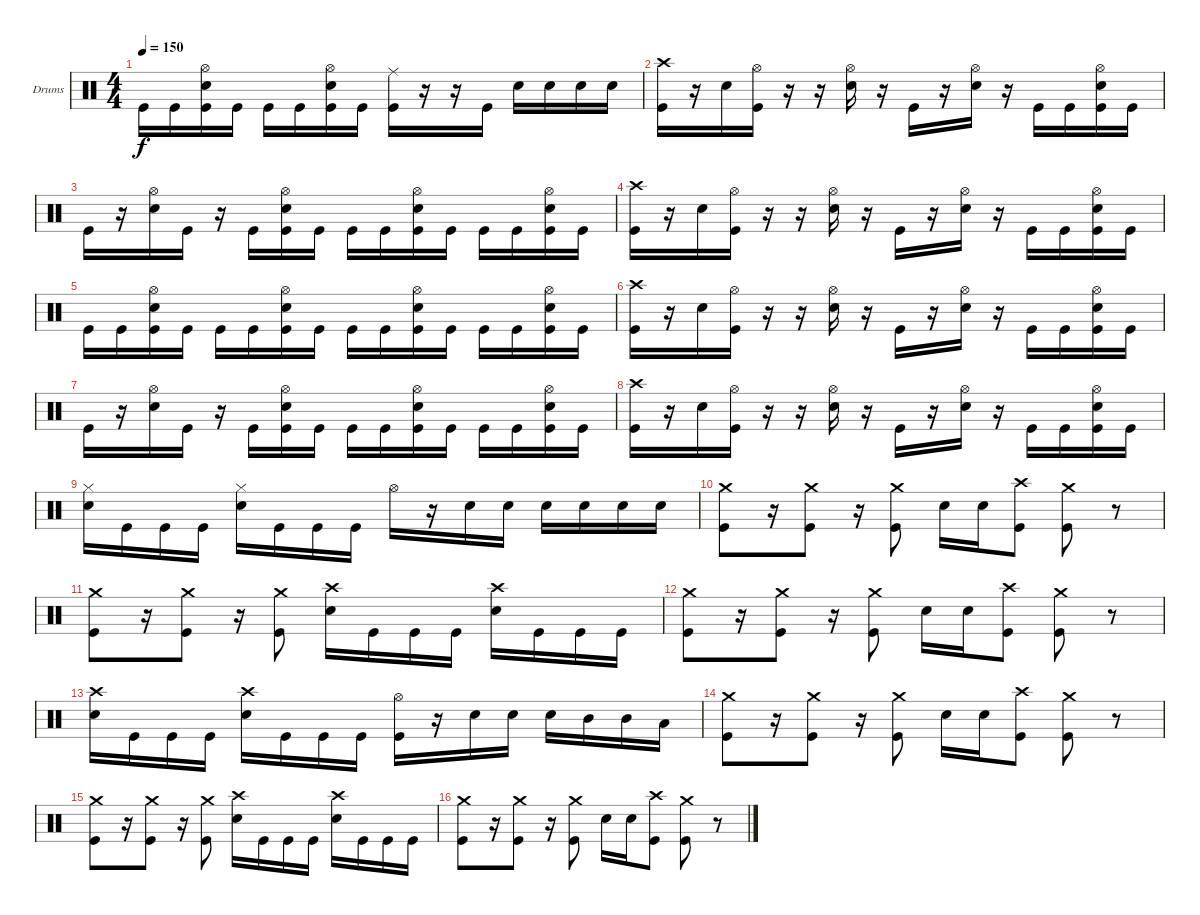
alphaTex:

\defaultSystemsLayout 4
\bracketExtendMode groupsimilarinstruments
\firstSystemTrackNameOrientation horizontal
\otherSystemsTrackNameOrientation horizontal
\track ("Moe Carlson" "Drums") {instrument percussion}
\staff {score}
\articulation defaults
\ts (4 4)
\tempo 150
\clef neutral
\ks c "Kick (hit)".16{dy f} "Kick (hit)".16
("Kick (hit)" "Snare (hit) 2" "Hi-Hat (open)").16 "Kick (hit)".16 "Kick (hit)".16 "Kick (hit)".16 ("Kick (hit)" "Hi-Hat (open)" "Snare (hit) 2").16 "Kick (hit)".16 ("Kick (hit)" "Ride (middle)").16 r.16 r.16 "Kick (hit)".16 "Snare (hit) 2".16 "Snare (hit) 2".16 "Snare (hit) 2".16 "Snare (hit) 2".16 |
("Crash high (hit)" "Kick (hit)").16 r.16 "Snare (hit) 2".16 ("Hi-Hat (open)" "Kick (hit)").16 r.16 r.16 ("Snare (hit) 2" "Hi-Hat (open)").16 r.16 "Kick (hit)".16 r.16 ("Snare (hit) 2" "Hi-Hat (open)").16 r.16 "Kick (hit)".16 "Kick (hit)".16 ("Kick (hit)" "Snare (hit) 2" "Hi-Hat (open)").16 "Kick (hit)".16 |
"Kick (hit)".16 r.16 ("Snare (hit) 2" "Hi-Hat (open)").16 "Kick (hit)".16 r.16 "Kick (hit)".16 ("Kick (hit)" "Snare (hit) 2" "Hi-Hat (open)").16 "Kick (hit)".16 "Kick (hit)".16 "Kick (hit)".16 ("Kick (hit)" "Snare (hit) 2" "Hi-Hat (open)").16 "Kick (hit)".16 "Kick (hit)".16 "Kick (hit)".16 ("Kick (hit)" "Snare (hit) 2" "Hi-Hat (open)").16 "Kick (hit)".16 |
("Crash high (hit)" "Kick (hit)").16 r.16 "Snare (hit) 2".16 ("Kick (hit)" "Hi-Hat (open)").16 r.16 r.16 ("Hi-Hat (open)" "Snare (hit) 2").16 r.16 "Kick (hit)".16 r.16 ("Hi-Hat (open)" "Snare (hit) 2").16 r.16 "Kick (hit)".16 "Kick (hit)".16 ("Kick (hit)" "Snare (hit) 2" "Hi-Hat (open)").16 "Kick (hit)".16 |
"Kick (hit)".16 "Kick (hit)".16 ("Kick (hit)" "Snare (hit) 2" "Hi-Hat (open)").16 "Kick (hit)".16 "Kick (hit)".16 "Kick (hit)".16 ("Kick (hit)" "Snare (hit) 2" "Hi-Hat (open)").16 "Kick (hit)".16 "Kick (hit)".16 "Kick (hit)".16 ("Kick (hit)" "Snare (hit) 2" "Hi-Hat (open)").16 "Kick (hit)".16 "Kick (hit)".16 "Kick (hit)".16 ("Kick (hit)" "Snare (hit) 2" "Hi-Hat (open)").16 "Kick (hit)".16 |
("Crash high (hit)" "Kick (hit)").16 r.16 "Snare (hit) 2".16 ("Hi-Hat (open)" "Kick (hit)").16 r.16 r.16 ("Snare (hit) 2" "Hi-Hat (open)").16 r.16 "Kick (hit)".16 r.16 ("Snare (hit) 2" "Hi-Hat (open)").16 r.16 "Kick (hit)".16 "Kick (hit)".16 ("Kick (hit)" "Snare (hit) 2" "Hi-Hat (open)").16 "Kick (hit)".16 |
"Kick (hit)".16 r.16 ("Snare (hit) 2" "Hi-Hat (open)").16 "Kick (hit)".16 r.16 "Kick (hit)".16 ("Kick (hit)" "Snare (hit) 2" "Hi-Hat (open)").16 "Kick (hit)".16 "Kick (hit)".16 "Kick (hit)".16 ("Kick (hit)" "Snare (hit) 2" "Hi-Hat (open)").16 "Kick (hit)".16 "Kick (hit)".16 "Kick (hit)".16 ("Kick (hit)" "Snare (hit) 2" "Hi-Hat (open)").16 "Kick (hit)".16 |
("Crash high (hit)" "Kick (hit)").16 r.16 "Snare (hit) 2".16 ("Kick (hit)" "Hi-Hat (open)").16 r.16 r.16 ("Hi-Hat (open)" "Snare (hit) 2").16 r.16 "Kick (hit)".16 r.16 ("Hi-Hat (open)" "Snare (hit) 2").16 r.16 "Kick (hit)".16 "Kick (hit)".16 ("Kick (hit)" "Snare (hit) 2" "Hi-Hat (open)").16 "Kick (hit)".16 |
("Hi-Hat (closed)" "Snare (hit) 2").16 "Kick (hit)".16 "Kick (hit)".16 "Kick (hit)".16 ("Snare (hit) 2" "Hi-Hat (closed)").16 "Kick (hit)".16 "Kick (hit)".16 "Kick (hit)".16 "Hi-Hat (open)".16 r.16 "Snare (hit) 2".16 "Snare (hit) 2".16 "Snare (hit) 2".16 "Snare (hit) 2".16 "Snare (hit) 2".16 "Snare (hit) 2".16 |
("Crash medium (hit)" "Kick (hit)").8 r.16 ("Kick (hit)" "Crash medium (hit)").8 r.16 ("Crash medium (hit)" "Kick (hit)").8 "Snare (hit) 2".16 "Snare (hit) 2".16 ("Kick (hit)" "Crash high (hit)").8 ("Crash medium (hit)" "Kick (hit)").8 r.8 |
("Crash medium (hit)" "Kick (hit)").8 r.16 ("Kick (hit)" "Crash medium (hit)").8 r.16 ("Crash medium (hit)" "Kick (hit)").8 ("Crash high (hit)" "Snare (hit) 2").16 "Kick (hit)".16 "Kick (hit)".16 "Kick (hit)".16 ("Snare (hit) 2" "Crash high (hit)").16 "Kick (hit)".16 "Kick (hit)".16 "Kick (hit)".16 |
("Crash medium (hit)" "Kick (hit)").8 r.16 ("Kick (hit)" "Crash medium (hit)").8 r.16 ("Crash medium (hit)" "Kick (hit)").8 "Snare (hit) 2".16 "Snare (hit) 2".16 ("Kick (hit)" "Crash high (hit)").8 ("Crash medium (hit)" "Kick (hit)").8 r.8 |
("Crash high (hit)" "Snare (hit) 2").16 "Kick (hit)".16 "Kick (hit)".16 "Kick (hit)".16 ("Snare (hit) 2" "Crash high (hit)").16 "Kick (hit)".16 "Kick (hit)".16 "Kick (hit)".16 ("Kick (hit)" "Hi-Hat (open)").16 r.16 "Snare (hit) 2".16 "Snare (hit) 2".16 "Snare (hit) 2".16 "Mid Tom (hit)".16 "Mid Tom (hit)".16 "Low Tom (hit)".16 |
("Crash medium (hit)" "Kick (hit)").8 r.16 ("Kick (hit)" "Crash medium (hit)").8 r.16 ("Crash medium (hit)" "Kick (hit)").8 "Snare (hit) 2".16 "Snare (hit) 2".16 ("Kick (hit)" "Crash high (hit)").8 ("Crash medium (hit)" "Kick (hit)").8 r.8 |
("Crash medium (hit)" "Kick (hit)").8 r.16 ("Kick (hit)" "Crash medium (hit)").8 r.16 ("Crash medium (hit)" "Kick (hit)").8 ("Crash high (hit)" "Snare (hit) 2").16 "Kick (hit)".16 "Kick (hit)".16 "Kick (hit)".16 ("Snare (hit) 2" "Crash high (hit)").16 "Kick (hit)".16 "Kick (hit)".16 "Kick (hit)".16 |
("Crash medium (hit)" "Kick (hit)").8 r.16 ("Kick (hit)" "Crash medium (hit)").8 r.16 ("Crash medium (hit)" "Kick (hit)").8 "Snare (hit) 2".16 "Snare (hit) 2".16 ("Kick (hit)" "Crash high (hit)").8 ("Crash medium (hit)" "Kick (hit)").8 r.8
